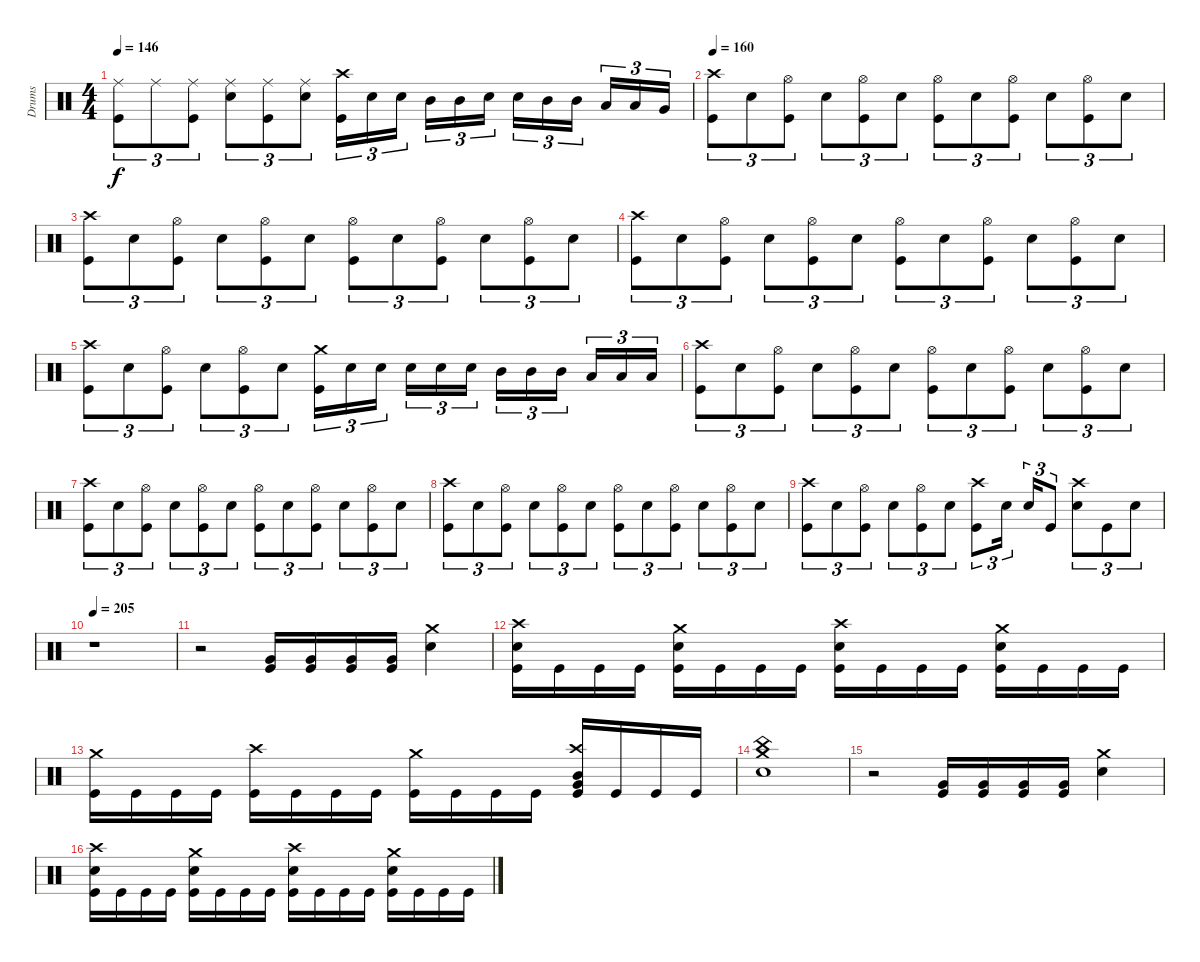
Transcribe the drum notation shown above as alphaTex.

\track ("Drums" "Drums") {instrument percussion}
\staff {score}
\articulation defaults
\ts (4 4)
\tempo 146
\clef neutral
\ks c
("Ride (middle)" "Kick (hit)").8{tu (3 2) dy f} "Ride (middle)".8{tu (3 2)} ("Ride (middle)" "Kick (hit)").8{tu (3 2)} ("Ride (middle)" "Electric Snare (hit)").8{tu (3 2)} ("Ride (middle)" "Kick (hit)").8{tu (3 2)} ("Ride (middle)" "Electric Snare (hit)").8{tu (3 2)} ("Crash high (hit)" "Kick (hit)").16{tu (3 2)} "Electric Snare (hit)".16{tu (3 2)} "Electric Snare (hit)".16{tu (3 2)} "Mid Tom (hit)".16{tu (3 2)} "Mid Tom (hit)".16{tu (3 2)} "Electric Snare (hit)".16{tu (3 2)} "Electric Snare (hit)".16{tu (3 2)} "Mid Tom (hit)".16{tu (3 2)} "Mid Tom (hit)".16{tu (3 2)} "Low Tom (hit)".16{tu (3 2)} "Low Tom (hit)".16{tu (3 2)} "Very Low Tom (hit)".16{tu (3 2)} |
\tempo 160
("Crash high (hit)" "Kick (hit)").8{tu (3 2)} "Electric Snare (hit)".8{tu (3 2)} ("Hi-Hat (open)" "Kick (hit)").8{tu (3 2)} "Electric Snare (hit)".8{tu (3 2)} ("Hi-Hat (open)" "Kick (hit)").8{tu (3 2)} "Electric Snare (hit)".8{tu (3 2)} ("Hi-Hat (open)" "Kick (hit)").8{tu (3 2)} "Electric Snare (hit)".8{tu (3 2)} ("Hi-Hat (open)" "Kick (hit)").8{tu (3 2)} "Electric Snare (hit)".8{tu (3 2)} ("Hi-Hat (open)" "Kick (hit)").8{tu (3 2)} "Electric Snare (hit)".8{tu (3 2)} |
("Crash high (hit)" "Kick (hit)").8{tu (3 2)} "Electric Snare (hit)".8{tu (3 2)} ("Hi-Hat (open)" "Kick (hit)").8{tu (3 2)} "Electric Snare (hit)".8{tu (3 2)} ("Hi-Hat (open)" "Kick (hit)").8{tu (3 2)} "Electric Snare (hit)".8{tu (3 2)} ("Hi-Hat (open)" "Kick (hit)").8{tu (3 2)} "Electric Snare (hit)".8{tu (3 2)} ("Hi-Hat (open)" "Kick (hit)").8{tu (3 2)} "Electric Snare (hit)".8{tu (3 2)} ("Hi-Hat (open)" "Kick (hit)").8{tu (3 2)} "Electric Snare (hit)".8{tu (3 2)} |
("Crash high (hit)" "Kick (hit)").8{tu (3 2)} "Electric Snare (hit)".8{tu (3 2)} ("Hi-Hat (open)" "Kick (hit)").8{tu (3 2)} "Electric Snare (hit)".8{tu (3 2)} ("Hi-Hat (open)" "Kick (hit)").8{tu (3 2)} "Electric Snare (hit)".8{tu (3 2)} ("Hi-Hat (open)" "Kick (hit)").8{tu (3 2)} "Electric Snare (hit)".8{tu (3 2)} ("Hi-Hat (open)" "Kick (hit)").8{tu (3 2)} "Electric Snare (hit)".8{tu (3 2)} ("Hi-Hat (open)" "Kick (hit)").8{tu (3 2)} "Electric Snare (hit)".8{tu (3 2)} |
("Crash high (hit)" "Kick (hit)").8{tu (3 2)} "Electric Snare (hit)".8{tu (3 2)} ("Hi-Hat (open)" "Kick (hit)").8{tu (3 2)} "Electric Snare (hit)".8{tu (3 2)} ("Hi-Hat (open)" "Kick (hit)").8{tu (3 2)} "Electric Snare (hit)".8{tu (3 2)} ("Crash medium (hit)" "Kick (hit)").16{tu (3 2)} "Electric Snare (hit)".16{tu (3 2)} "Electric Snare (hit)".16{tu (3 2)} "Electric Snare (hit)".16{tu (3 2)} "Electric Snare (hit)".16{tu (3 2)} "Electric Snare (hit)".16{tu (3 2)} "Mid Tom (hit)".16{tu (3 2)} "Mid Tom (hit)".16{tu (3 2)} "Mid Tom (hit)".16{tu (3 2)} "Low Tom (hit)".16{tu (3 2)} "Low Tom (hit)".16{tu (3 2)} "Low Tom (hit)".16{tu (3 2)} |
("Crash high (hit)" "Kick (hit)").8{tu (3 2)} "Electric Snare (hit)".8{tu (3 2)} ("Hi-Hat (open)" "Kick (hit)").8{tu (3 2)} "Electric Snare (hit)".8{tu (3 2)} ("Hi-Hat (open)" "Kick (hit)").8{tu (3 2)} "Electric Snare (hit)".8{tu (3 2)} ("Hi-Hat (open)" "Kick (hit)").8{tu (3 2)} "Electric Snare (hit)".8{tu (3 2)} ("Hi-Hat (open)" "Kick (hit)").8{tu (3 2)} "Electric Snare (hit)".8{tu (3 2)} ("Hi-Hat (open)" "Kick (hit)").8{tu (3 2)} "Electric Snare (hit)".8{tu (3 2)} |
("Crash high (hit)" "Kick (hit)").8{tu (3 2)} "Electric Snare (hit)".8{tu (3 2)} ("Hi-Hat (open)" "Kick (hit)").8{tu (3 2)} "Electric Snare (hit)".8{tu (3 2)} ("Hi-Hat (open)" "Kick (hit)").8{tu (3 2)} "Electric Snare (hit)".8{tu (3 2)} ("Hi-Hat (open)" "Kick (hit)").8{tu (3 2)} "Electric Snare (hit)".8{tu (3 2)} ("Hi-Hat (open)" "Kick (hit)").8{tu (3 2)} "Electric Snare (hit)".8{tu (3 2)} ("Hi-Hat (open)" "Kick (hit)").8{tu (3 2)} "Electric Snare (hit)".8{tu (3 2)} |
("Crash high (hit)" "Kick (hit)").8{tu (3 2)} "Electric Snare (hit)".8{tu (3 2)} ("Hi-Hat (open)" "Kick (hit)").8{tu (3 2)} "Electric Snare (hit)".8{tu (3 2)} ("Hi-Hat (open)" "Kick (hit)").8{tu (3 2)} "Electric Snare (hit)".8{tu (3 2)} ("Hi-Hat (open)" "Kick (hit)").8{tu (3 2)} "Electric Snare (hit)".8{tu (3 2)} ("Hi-Hat (open)" "Kick (hit)").8{tu (3 2)} "Electric Snare (hit)".8{tu (3 2)} ("Hi-Hat (open)" "Kick (hit)").8{tu (3 2)} "Electric Snare (hit)".8{tu (3 2)} |
("Crash high (hit)" "Kick (hit)").8{tu (3 2)} "Electric Snare (hit)".8{tu (3 2)} ("Hi-Hat (open)" "Kick (hit)").8{tu (3 2)} "Electric Snare (hit)".8{tu (3 2)} ("Hi-Hat (open)" "Kick (hit)").8{tu (3 2)} "Electric Snare (hit)".8{tu (3 2)} ("Crash high (hit)" "Kick (hit)").8{tu (3 2)} "Electric Snare (hit)".16{tu (3 2)} "Electric Snare (hit)".16{tu (3 2)} "Kick (hit)".8{tu (3 2)} ("Crash high (hit)" "Electric Snare (hit)").8{tu (3 2)} "Kick (hit)".8{tu (3 2)} "Electric Snare (hit)".8{tu (3 2)} |
\tempo 205
r.1 |
r.2 ("Kick (hit)" "Very Low Tom (hit)").16 ("Kick (hit)" "Very Low Tom (hit)").16 ("Kick (hit)" "Very Low Tom (hit)").16 ("Kick (hit)" "Very Low Tom (hit)").16 ("Electric Snare (hit)" "Crash medium (hit)").4 |
("Crash high (hit)" "Electric Snare (hit)" "Kick (hit)").16 "Kick (hit)".16 "Kick (hit)".16 "Kick (hit)".16 ("Crash medium (hit)" "Electric Snare (hit)" "Kick (hit)").16 "Kick (hit)".16 "Kick (hit)".16 "Kick (hit)".16 ("Crash high (hit)" "Electric Snare (hit)" "Kick (hit)").16 "Kick (hit)".16 "Kick (hit)".16 "Kick (hit)".16 ("Crash medium (hit)" "Electric Snare (hit)" "Kick (hit)").16 "Kick (hit)".16 "Kick (hit)".16 "Kick (hit)".16 |
("Crash medium (hit)" "Kick (hit)").16 "Kick (hit)".16 "Kick (hit)".16 "Kick (hit)".16 ("Crash high (hit)" "Kick (hit)").16 "Kick (hit)".16 "Kick (hit)".16 "Kick (hit)".16 ("Crash medium (hit)" "Kick (hit)").16 "Kick (hit)".16 "Kick (hit)".16 "Kick (hit)".16 ("Crash high (hit)" "Mid Tom (hit)" "Very Low Tom (hit)" "Kick (hit)").16 "Kick (hit)".16 "Kick (hit)".16 "Kick (hit)".16 |
("Crash medium (hit)" "China (hit)" "Electric Snare (hit)").1 |
r.2 ("Kick (hit)" "Very Low Tom (hit)").16 ("Kick (hit)" "Very Low Tom (hit)").16 ("Kick (hit)" "Very Low Tom (hit)").16 ("Kick (hit)" "Very Low Tom (hit)").16 ("Electric Snare (hit)" "Crash medium (hit)").4 |
("Crash high (hit)" "Electric Snare (hit)" "Kick (hit)").16 "Kick (hit)".16 "Kick (hit)".16 "Kick (hit)".16 ("Crash medium (hit)" "Electric Snare (hit)" "Kick (hit)").16 "Kick (hit)".16 "Kick (hit)".16 "Kick (hit)".16 ("Crash high (hit)" "Electric Snare (hit)" "Kick (hit)").16 "Kick (hit)".16 "Kick (hit)".16 "Kick (hit)".16 ("Crash medium (hit)" "Electric Snare (hit)" "Kick (hit)").16 "Kick (hit)".16 "Kick (hit)".16 "Kick (hit)".16
